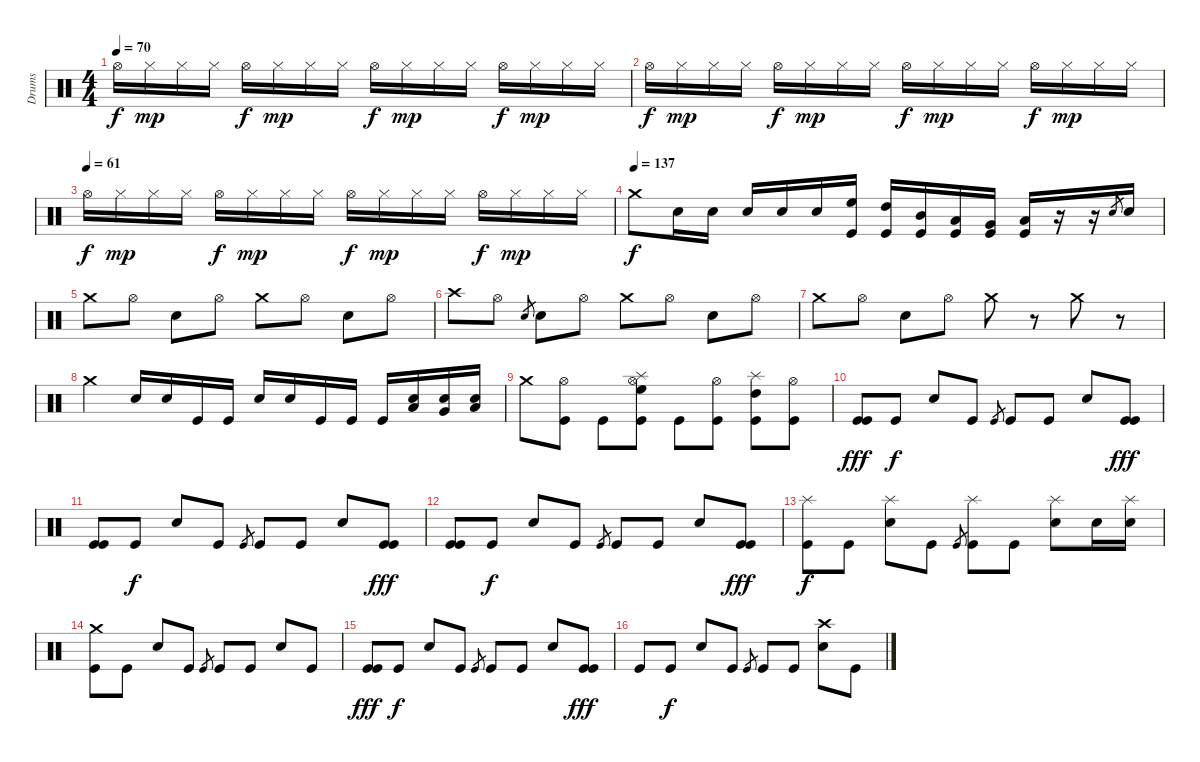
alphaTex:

\track ("Drums" "Drums") {instrument percussion}
\staff {score}
\articulation defaults
\ts (4 4)
\tempo 70
\clef neutral
\ks c "Hi-Hat (open)".16{dy f} "Hi-Hat (closed)".16{dy mp} "Hi-Hat (closed)".16 "Hi-Hat (closed)".16 "Hi-Hat (open)".16{dy f} "Hi-Hat (closed)".16{dy mp} "Hi-Hat (closed)".16 "Hi-Hat (closed)".16 "Hi-Hat (open)".16{dy f} "Hi-Hat (closed)".16{dy mp} "Hi-Hat (closed)".16 "Hi-Hat (closed)".16 "Hi-Hat (open)".16{dy f} "Hi-Hat (closed)".16{dy mp} "Hi-Hat (closed)".16 "Hi-Hat (closed)".16
|
"Hi-Hat (open)".16{dy f} "Hi-Hat (closed)".16{dy mp} "Hi-Hat (closed)".16 "Hi-Hat (closed)".16 "Hi-Hat (open)".16{dy f} "Hi-Hat (closed)".16{dy mp} "Hi-Hat (closed)".16 "Hi-Hat (closed)".16 "Hi-Hat (open)".16{dy f} "Hi-Hat (closed)".16{dy mp} "Hi-Hat (closed)".16 "Hi-Hat (closed)".16 "Hi-Hat (open)".16{dy f} "Hi-Hat (closed)".16{dy mp} "Hi-Hat (closed)".16 "Hi-Hat (closed)".16 |
\tempo (61)
"Hi-Hat (open)".16{dy f} "Hi-Hat (closed)".16{dy mp} "Hi-Hat (closed)".16 "Hi-Hat (closed)".16 "Hi-Hat (open)".16{dy f} "Hi-Hat (closed)".16{dy mp} "Hi-Hat (closed)".16 "Hi-Hat (closed)".16 "Hi-Hat (open)".16{dy f} "Hi-Hat (closed)".16{dy mp} "Hi-Hat (closed)".16 "Hi-Hat (closed)".16 "Hi-Hat (open)".16{dy f} "Hi-Hat (closed)".16{dy mp} "Hi-Hat (closed)".16 "Hi-Hat (closed)".16 |
\tempo (137)
"Crash medium (hit)".8{dy f} "Electric Snare (hit)".16 "Electric Snare (hit)".16 "Electric Snare (hit)".16 "Electric Snare (hit)".16 "Electric Snare (hit)".16 ("High Floor Tom (hit)" "Kick (hit)").16 ("High Tom (hit)" "Kick (hit)").16 ("Mid Tom (hit)" "Kick (hit)").16 ("Low Tom (hit)" "Kick (hit)").16 ("Very Low Tom (hit)" "Kick (hit)").16 ("Low Floor Tom (hit)" "Kick (hit)").16 r.16 r.16 "Electric Snare (hit)".8{gr} "Electric Snare (hit)".16 |
"Crash medium (hit)".8 "Hi-Hat (open)".8 "Electric Snare (hit)".8 "Hi-Hat (open)".8 "Crash medium (hit)".8 "Hi-Hat (open)".8 "Electric Snare (hit)".8 "Hi-Hat (open)".8 |
"Crash high (hit)".8 "Hi-Hat (open)".8 "Electric Snare (hit)".8{gr} "Electric Snare (hit)".8 "Hi-Hat (open)".8 "Crash medium (hit)".8 "Hi-Hat (open)".8 "Electric Snare (hit)".8 "Hi-Hat (open)".8 |
"Crash medium (hit)".8 "Hi-Hat (open)".8 "Electric Snare (hit)".8 "Hi-Hat (open)".8 "Crash medium (hit)".8 r.8 "Crash medium (hit)".8 r.8 |
"Crash medium (hit)".4 "Electric Snare (hit)".16 "Electric Snare (hit)".16 "Kick (hit)".16 "Kick (hit)".16 "Electric Snare (hit)".16 "Electric Snare (hit)".16 "Kick (hit)".16 "Kick (hit)".16 "Kick (hit)".16 ("Low Tom (hit)" "Electric Snare (hit)").16 ("Very Low Tom (hit)" "Electric Snare (hit)").16 ("Low Floor Tom (hit)" "Electric Snare (hit)").16 |
"Crash medium (hit)".8 ("Hi-Hat (open)" "Kick (hit)").8 "Kick (hit)".8 ("Hi-Hat (open)" "High Floor Tom (hit)" "Kick (hit)" "Splash (hit)").8 "Kick (hit)".8 ("Hi-Hat (open)" "Kick (hit)").8 ("High Tom (hit)" "Kick (hit)" "Splash (hit)").8 ("Hi-Hat (open)" "Kick (hit)").8 |
("Kick (hit)" "Kick (hit)").8{dy fff} "Kick (hit)".8{dy f} "Snare (hit) 2".8 "Kick (hit)".8 "Kick (hit)".8{gr} "Kick (hit)".8 "Kick (hit)".8 "Snare (hit) 2".8 ("Kick (hit)" "Kick (hit)").8{dy fff} |
("Kick (hit)" "Kick (hit)").8 "Kick (hit)".8{dy f} "Snare (hit) 2".8 "Kick (hit)".8 "Kick (hit)".8{gr} "Kick (hit)".8 "Kick (hit)".8 "Snare (hit) 2".8 ("Kick (hit)" "Kick (hit)").8{dy fff} |
("Kick (hit)" "Kick (hit)").8 "Kick (hit)".8{dy f} "Snare (hit) 2".8 "Kick (hit)".8 "Kick (hit)".8{gr} "Kick (hit)".8 "Kick (hit)".8 "Snare (hit) 2".8 ("Kick (hit)" "Kick (hit)").8{dy fff} |
("Splash (hit)" "Kick (hit)").8{dy f} "Kick (hit)".8 ("Splash (hit)" "Snare (hit) 2").8 "Kick (hit)".8 "Kick (hit)".8{gr} ("Splash (hit)" "Kick (hit)").8 "Kick (hit)".8 ("Splash (hit)" "Snare (hit) 2").8 "Snare (hit) 2".16 ("Splash (hit)" "Snare (hit) 2").16 |
("Crash medium (hit)" "Kick (hit)").8 "Kick (hit)".8 "Snare (hit) 2".8 "Kick (hit)".8 "Kick (hit)".8{gr} "Kick (hit)".8 "Kick (hit)".8 "Snare (hit) 2".8 "Kick (hit)".8 |
("Kick (hit)" "Kick (hit)").8{dy fff} "Kick (hit)".8{dy f} "Snare (hit) 2".8 "Kick (hit)".8 "Kick (hit)".8{gr} "Kick (hit)".8 "Kick (hit)".8 "Snare (hit) 2".8 ("Kick (hit)" "Kick (hit)").8{dy fff} |
"Kick (hit)".8 "Kick (hit)".8{dy f} "Snare (hit) 2".8 "Kick (hit)".8 "Kick (hit)".8{gr} "Kick (hit)".8 "Kick (hit)".8 ("Crash high (hit)" "Snare (hit) 2").8 "Kick (hit)".8
